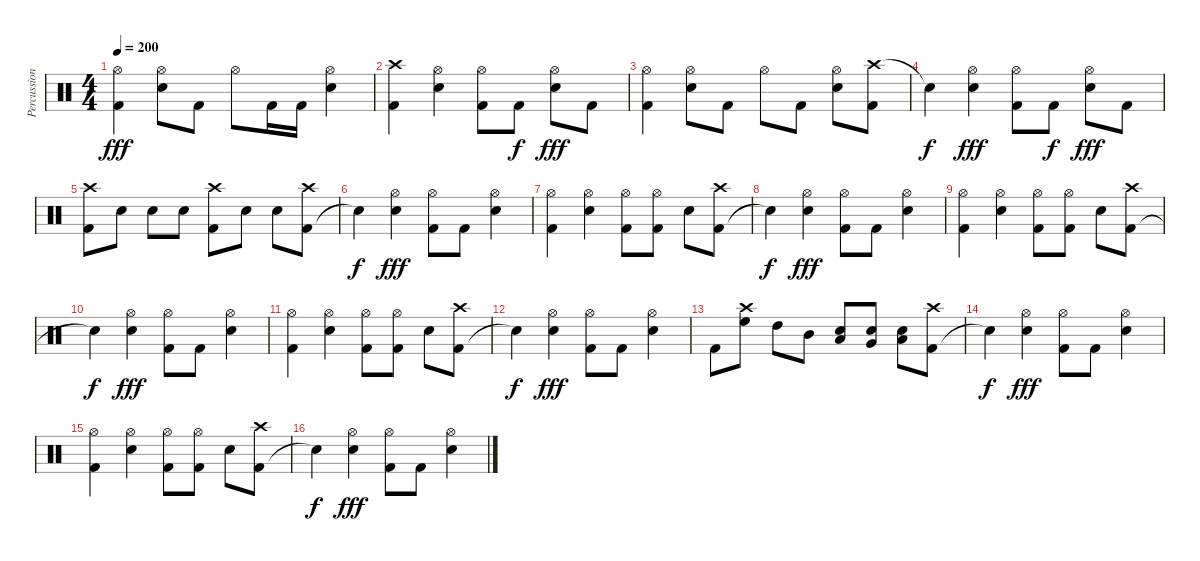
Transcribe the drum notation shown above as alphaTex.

\track ("Percussion" "Percussion") {instrument percussion}
\staff {score}
\articulation defaults
\ts (4 4)
\tempo 200
\clef neutral
\ks c
("Kick (hit) 2" "Hi-Hat (open)").4{dy fff} ("Snare (hit) 2" "Hi-Hat (open)").8 "Kick (hit) 2".8 "Hi-Hat (open)".8 "Kick (hit) 2".16 "Kick (hit) 2".16 ("Snare (hit) 2" "Hi-Hat (open)").4 |
("Kick (hit) 2" "Crash high (hit)").4 ("Snare (hit) 2" "Hi-Hat (open)").4 ("Kick (hit) 2" "Hi-Hat (open)").8 "Kick (hit) 2".8{dy f} ("Snare (hit) 2" "Hi-Hat (open)").8{dy fff} "Kick (hit) 2".8 |
("Kick (hit) 2" "Hi-Hat (open)").4 ("Snare (hit) 2" "Hi-Hat (open)").8 "Kick (hit) 2".8 "Hi-Hat (open)".8 "Kick (hit) 2".8 ("Snare (hit) 2" "Hi-Hat (open)").8 ("Crash high (hit)" "Kick (hit) 2").8 |
"Snare (hit)"{t}.4{dy f} ("Snare (hit) 2" "Hi-Hat (open)").4{dy fff} ("Kick (hit) 2" "Hi-Hat (open)").8 "Kick (hit) 2".8{dy f} ("Snare (hit) 2" "Hi-Hat (open)").8{dy fff} "Kick (hit) 2".8 |
("Kick (hit) 2" "Crash high (hit)").8 "Snare (hit) 2".8 "Snare (hit) 2".8 "Snare (hit) 2".8 ("Kick (hit) 2" "Crash high (hit)").8 "Snare (hit) 2".8 "Snare (hit) 2".8 ("Kick (hit) 2" "Crash high (hit)").8 |
"Snare (hit)"{t}.4{dy f} ("Snare (hit) 2" "Hi-Hat (open)").4{dy fff} ("Kick (hit) 2" "Hi-Hat (open)").8 "Kick (hit) 2".8 ("Snare (hit) 2" "Hi-Hat (open)").4 |
("Kick (hit) 2" "Hi-Hat (open)").4 ("Snare (hit) 2" "Hi-Hat (open)").4 ("Kick (hit) 2" "Hi-Hat (open)").8 ("Kick (hit) 2" "Hi-Hat (open)").8 "Snare (hit) 2".8 ("Kick (hit) 2" "Crash high (hit)").8 |
"Snare (hit)"{t}.4{dy f} ("Snare (hit) 2" "Hi-Hat (open)").4{dy fff} ("Kick (hit) 2" "Hi-Hat (open)").8 "Kick (hit) 2".8 ("Snare (hit) 2" "Hi-Hat (open)").4 |
("Kick (hit) 2" "Hi-Hat (open)").4 ("Snare (hit) 2" "Hi-Hat (open)").4 ("Kick (hit) 2" "Hi-Hat (open)").8 ("Kick (hit) 2" "Hi-Hat (open)").8 "Snare (hit) 2".8 ("Kick (hit) 2" "Crash high (hit)").8 |
"Snare (hit)"{t}.4{dy f} ("Snare (hit) 2" "Hi-Hat (open)").4{dy fff} ("Kick (hit) 2" "Hi-Hat (open)").8 "Kick (hit) 2".8 ("Snare (hit) 2" "Hi-Hat (open)").4 |
("Kick (hit) 2" "Hi-Hat (open)").4 ("Snare (hit) 2" "Hi-Hat (open)").4 ("Kick (hit) 2" "Hi-Hat (open)").8 ("Kick (hit) 2" "Hi-Hat (open)").8 "Snare (hit) 2".8 ("Kick (hit) 2" "Crash high (hit)").8 |
"Snare (hit)"{t}.4{dy f} ("Hi-Hat (open)" "Snare (hit) 2").4{dy fff} ("Hi-Hat (open)" "Kick (hit) 2").8 "Kick (hit) 2".8 ("Hi-Hat (open)" "Snare (hit) 2").4 |
"Kick (hit) 2".8 ("High Floor Tom (hit)" "Crash high (hit)").8 "High Tom (hit)".8 "Mid Tom (hit)".8 ("Snare (hit) 2" "Low Tom (hit)").8 ("Snare (hit) 2" "Very Low Tom (hit)").8 ("Snare (hit) 2" "Low Floor Tom (hit)").8 ("Kick (hit) 2" "Crash high (hit)").8 |
"Snare (hit)"{t}.4{dy f} ("Snare (hit) 2" "Hi-Hat (open)").4{dy fff} ("Kick (hit) 2" "Hi-Hat (open)").8 "Kick (hit) 2".8 ("Snare (hit) 2" "Hi-Hat (open)").4 |
("Kick (hit) 2" "Hi-Hat (open)").4 ("Snare (hit) 2" "Hi-Hat (open)").4 ("Kick (hit) 2" "Hi-Hat (open)").8 ("Kick (hit) 2" "Hi-Hat (open)").8 "Snare (hit) 2".8 ("Kick (hit) 2" "Crash high (hit)").8 |
"Snare (hit)"{t}.4{dy f} ("Snare (hit) 2" "Hi-Hat (open)").4{dy fff} ("Kick (hit) 2" "Hi-Hat (open)").8 "Kick (hit) 2".8 ("Snare (hit) 2" "Hi-Hat (open)").4
